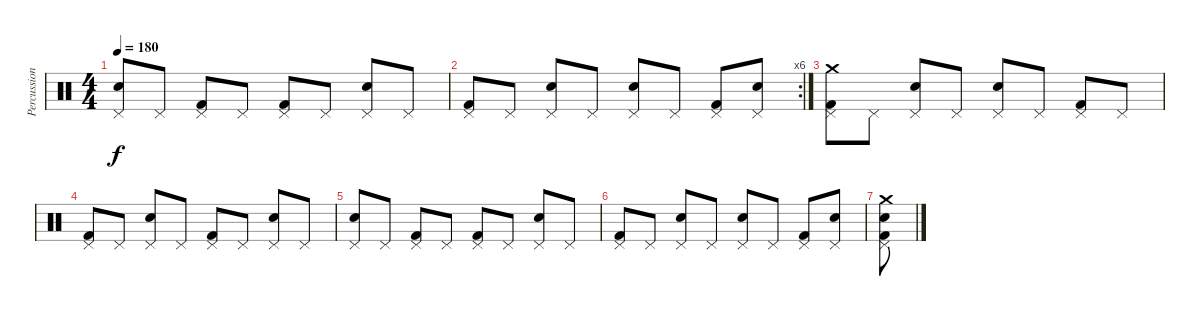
\track ("Percussion" "Percussion") {instrument percussion}
\staff {score}
\articulation defaults
\ts (4 4)
\tempo 180
\clef neutral
\ks c
("Pedal Hi-Hat (hit)" "Electric Snare (hit)").8{dy f} "Pedal Hi-Hat (hit)".8 ("Pedal Hi-Hat (hit)" "Kick (hit) 2").8 "Pedal Hi-Hat (hit)".8 ("Pedal Hi-Hat (hit)" "Kick (hit) 2").8 "Pedal Hi-Hat (hit)".8 ("Pedal Hi-Hat (hit)" "Electric Snare (hit)").8 "Pedal Hi-Hat (hit)".8 |
\rc 6
("Pedal Hi-Hat (hit)" "Kick (hit) 2").8 "Pedal Hi-Hat (hit)".8 ("Pedal Hi-Hat (hit)" "Electric Snare (hit)").8 "Pedal Hi-Hat (hit)".8 ("Pedal Hi-Hat (hit)" "Electric Snare (hit)").8 "Pedal Hi-Hat (hit)".8 ("Pedal Hi-Hat (hit)" "Kick (hit) 2").8 ("Pedal Hi-Hat (hit)" "Electric Snare (hit)").8 |
("Crash medium (hit)" "Pedal Hi-Hat (hit)" "Kick (hit) 2").8 "Pedal Hi-Hat (hit)".8 ("Pedal Hi-Hat (hit)" "Electric Snare (hit)").8 "Pedal Hi-Hat (hit)".8 ("Pedal Hi-Hat (hit)" "Electric Snare (hit)").8 "Pedal Hi-Hat (hit)".8 ("Pedal Hi-Hat (hit)" "Kick (hit) 2").8 "Pedal Hi-Hat (hit)".8 |
("Pedal Hi-Hat (hit)" "Kick (hit) 2").8 "Pedal Hi-Hat (hit)".8 ("Pedal Hi-Hat (hit)" "Electric Snare (hit)").8 "Pedal Hi-Hat (hit)".8 ("Pedal Hi-Hat (hit)" "Kick (hit) 2").8 "Pedal Hi-Hat (hit)".8 ("Pedal Hi-Hat (hit)" "Electric Snare (hit)").8 "Pedal Hi-Hat (hit)".8 |
("Pedal Hi-Hat (hit)" "Electric Snare (hit)").8 "Pedal Hi-Hat (hit)".8 ("Pedal Hi-Hat (hit)" "Kick (hit) 2").8 "Pedal Hi-Hat (hit)".8 ("Pedal Hi-Hat (hit)" "Kick (hit) 2").8 "Pedal Hi-Hat (hit)".8 ("Pedal Hi-Hat (hit)" "Electric Snare (hit)").8 "Pedal Hi-Hat (hit)".8 |
("Pedal Hi-Hat (hit)" "Kick (hit) 2").8 "Pedal Hi-Hat (hit)".8 ("Pedal Hi-Hat (hit)" "Electric Snare (hit)").8 "Pedal Hi-Hat (hit)".8 ("Pedal Hi-Hat (hit)" "Electric Snare (hit)").8 "Pedal Hi-Hat (hit)".8 ("Pedal Hi-Hat (hit)" "Kick (hit) 2").8 ("Pedal Hi-Hat (hit)" "Electric Snare (hit)").8 |
("Crash medium (hit)" "Pedal Hi-Hat (hit)" "Electric Snare (hit)" "Kick (hit) 2").8
